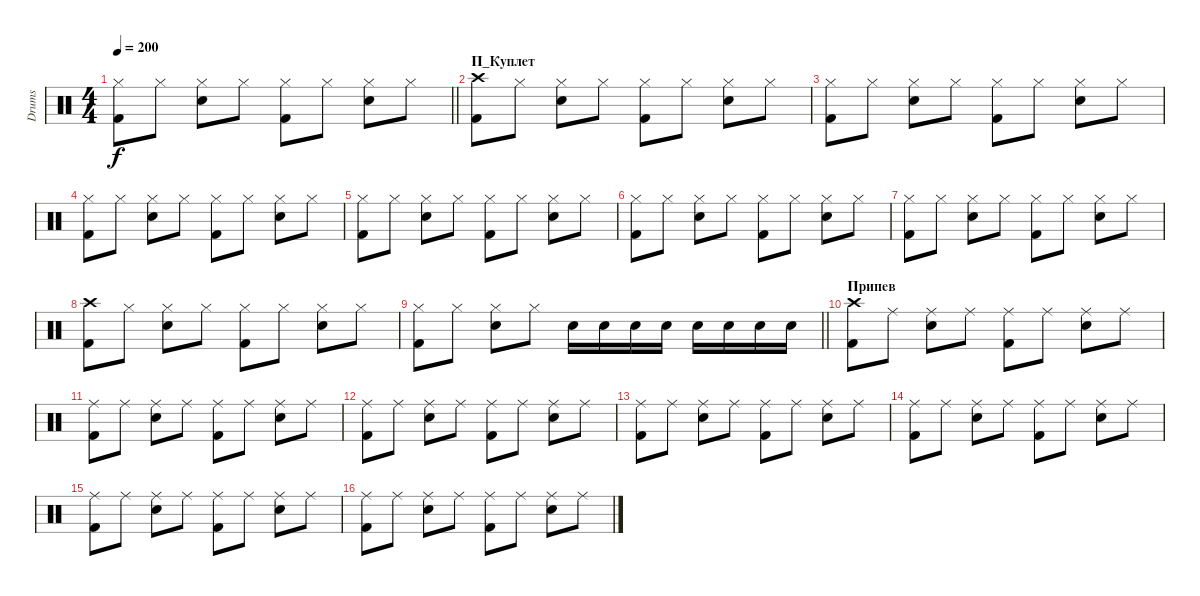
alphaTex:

\track ("Drums" "Drums") {instrument percussion}
\staff {score}
\articulation defaults
\ts (4 4)
\tempo 200
\clef neutral
\barLineRight lightlight
\ks c
("Hi-Hat (closed)" "Kick (hit) 2").8{dy f} "Hi-Hat (closed)".8 ("Hi-Hat (closed)" "Snare (hit) 2").8 "Hi-Hat (closed)".8 ("Hi-Hat (closed)" "Kick (hit) 2").8 "Hi-Hat (closed)".8 ("Hi-Hat (closed)" "Snare (hit) 2").8 "Hi-Hat (closed)".8 |
\section ("" "П_Куплет")
("Crash high (hit)" "Kick (hit) 2").8 "Hi-Hat (closed)".8 ("Hi-Hat (closed)" "Snare (hit) 2").8 "Hi-Hat (closed)".8 ("Hi-Hat (closed)" "Kick (hit) 2").8 "Hi-Hat (closed)".8 ("Hi-Hat (closed)" "Snare (hit) 2").8 "Hi-Hat (closed)".8 |
("Hi-Hat (closed)" "Kick (hit) 2").8 "Hi-Hat (closed)".8 ("Hi-Hat (closed)" "Snare (hit) 2").8 "Hi-Hat (closed)".8 ("Hi-Hat (closed)" "Kick (hit) 2").8 "Hi-Hat (closed)".8 ("Hi-Hat (closed)" "Snare (hit) 2").8 "Hi-Hat (closed)".8 |
("Hi-Hat (closed)" "Kick (hit) 2").8 "Hi-Hat (closed)".8 ("Hi-Hat (closed)" "Snare (hit) 2").8 "Hi-Hat (closed)".8 ("Hi-Hat (closed)" "Kick (hit) 2").8 "Hi-Hat (closed)".8 ("Hi-Hat (closed)" "Snare (hit) 2").8 "Hi-Hat (closed)".8 |
("Hi-Hat (closed)" "Kick (hit) 2").8 "Hi-Hat (closed)".8 ("Hi-Hat (closed)" "Snare (hit) 2").8 "Hi-Hat (closed)".8 ("Hi-Hat (closed)" "Kick (hit) 2").8 "Hi-Hat (closed)".8 ("Hi-Hat (closed)" "Snare (hit) 2").8 "Hi-Hat (closed)".8 |
("Hi-Hat (closed)" "Kick (hit) 2").8 "Hi-Hat (closed)".8 ("Hi-Hat (closed)" "Snare (hit) 2").8 "Hi-Hat (closed)".8 ("Hi-Hat (closed)" "Kick (hit) 2").8 "Hi-Hat (closed)".8 ("Hi-Hat (closed)" "Snare (hit) 2").8 "Hi-Hat (closed)".8 |
("Hi-Hat (closed)" "Kick (hit) 2").8 "Hi-Hat (closed)".8 ("Hi-Hat (closed)" "Snare (hit) 2").8 "Hi-Hat (closed)".8 ("Hi-Hat (closed)" "Kick (hit) 2").8 "Hi-Hat (closed)".8 ("Hi-Hat (closed)" "Snare (hit) 2").8 "Hi-Hat (closed)".8 |
("Crash high (hit)" "Kick (hit) 2").8 "Hi-Hat (closed)".8 ("Hi-Hat (closed)" "Snare (hit) 2").8 "Hi-Hat (closed)".8 ("Hi-Hat (closed)" "Kick (hit) 2").8 "Hi-Hat (closed)".8 ("Hi-Hat (closed)" "Snare (hit) 2").8 "Hi-Hat (closed)".8 |
\barLineRight lightlight
("Hi-Hat (closed)" "Kick (hit) 2").8 "Hi-Hat (closed)".8 ("Hi-Hat (closed)" "Snare (hit) 2").8 "Hi-Hat (closed)".8 "Snare (hit) 2".16 "Snare (hit) 2".16 "Snare (hit) 2".16 "Snare (hit) 2".16 "Snare (hit) 2".16 "Snare (hit) 2".16 "Snare (hit) 2".16 "Snare (hit) 2".16 |
\section ("" "Припев")
("Crash high (hit)" "Kick (hit) 2").8 "Ride (middle)".8 ("Ride (middle)" "Snare (hit) 2").8 "Ride (middle)".8 ("Ride (middle)" "Kick (hit) 2").8 "Ride (middle)".8 ("Ride (middle)" "Snare (hit) 2").8 "Ride (middle)".8 |
("Ride (middle)" "Kick (hit) 2").8 "Ride (middle)".8 ("Ride (middle)" "Snare (hit) 2").8 "Ride (middle)".8 ("Ride (middle)" "Kick (hit) 2").8 "Ride (middle)".8 ("Ride (middle)" "Snare (hit) 2").8 "Ride (middle)".8 |
("Ride (middle)" "Kick (hit) 2").8 "Ride (middle)".8 ("Ride (middle)" "Snare (hit) 2").8 "Ride (middle)".8 ("Ride (middle)" "Kick (hit) 2").8 "Ride (middle)".8 ("Ride (middle)" "Snare (hit) 2").8 "Ride (middle)".8 |
("Ride (middle)" "Kick (hit) 2").8 "Ride (middle)".8 ("Ride (middle)" "Snare (hit) 2").8 "Ride (middle)".8 ("Ride (middle)" "Kick (hit) 2").8 "Ride (middle)".8 ("Ride (middle)" "Snare (hit) 2").8 "Ride (middle)".8 |
("Ride (middle)" "Kick (hit) 2").8 "Ride (middle)".8 ("Ride (middle)" "Snare (hit) 2").8 "Ride (middle)".8 ("Ride (middle)" "Kick (hit) 2").8 "Ride (middle)".8 ("Ride (middle)" "Snare (hit) 2").8 "Ride (middle)".8 |
("Ride (middle)" "Kick (hit) 2").8 "Ride (middle)".8 ("Ride (middle)" "Snare (hit) 2").8 "Ride (middle)".8 ("Ride (middle)" "Kick (hit) 2").8 "Ride (middle)".8 ("Ride (middle)" "Snare (hit) 2").8 "Ride (middle)".8 |
("Ride (middle)" "Kick (hit) 2").8 "Ride (middle)".8 ("Ride (middle)" "Snare (hit) 2").8 "Ride (middle)".8 ("Ride (middle)" "Kick (hit) 2").8 "Ride (middle)".8 ("Ride (middle)" "Snare (hit) 2").8 "Ride (middle)".8
